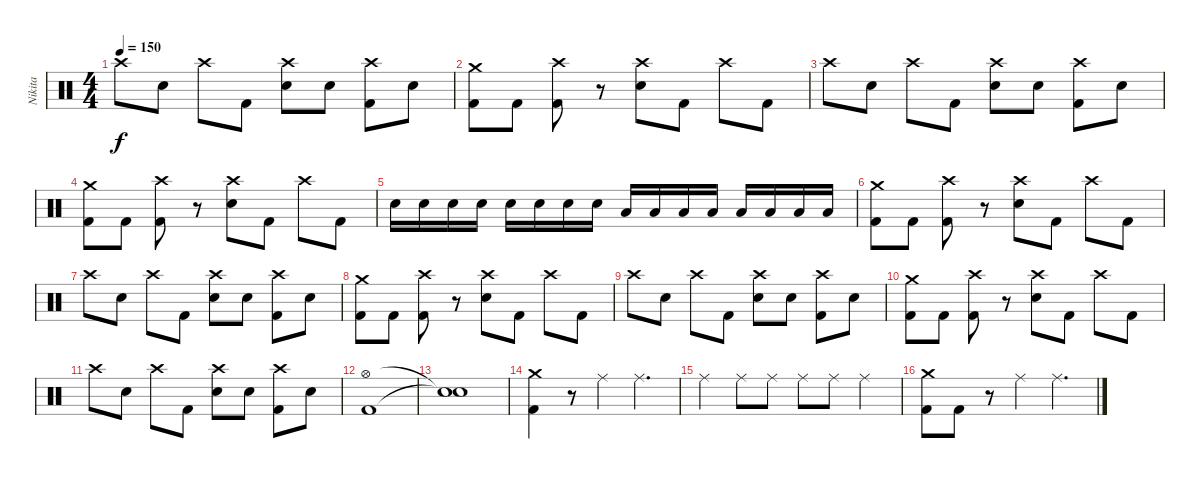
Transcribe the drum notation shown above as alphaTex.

\track ("Nikita" "Nikita") {instrument percussion}
\staff {score}
\articulation defaults
\ts (4 4)
\tempo 150
\clef neutral
\ks c "Crash high (hit)".8{dy f} "Electric Snare (hit)".8 "Crash high (hit)".8 "Kick (hit) 2".8
("Crash high (hit)" "Electric Snare (hit)").8 "Electric Snare (hit)".8 ("Crash high (hit)" "Kick (hit) 2").8 "Electric Snare (hit)".8 |
("Crash medium (hit)" "Kick (hit) 2").8 "Kick (hit) 2".8 ("Crash high (hit)" "Kick (hit) 2").8 r.8 ("Crash high (hit)" "Electric Snare (hit)").8 "Kick (hit) 2".8 "Crash high (hit)".8 "Kick (hit) 2".8 |
"Crash high (hit)".8 "Electric Snare (hit)".8 "Crash high (hit)".8 "Kick (hit) 2".8 ("Crash high (hit)" "Electric Snare (hit)").8 "Electric Snare (hit)".8 ("Crash high (hit)" "Kick (hit) 2").8 "Electric Snare (hit)".8 |
("Crash medium (hit)" "Kick (hit) 2").8 "Kick (hit) 2".8 ("Crash high (hit)" "Kick (hit) 2").8 r.8 ("Crash high (hit)" "Electric Snare (hit)").8 "Kick (hit) 2".8 "Crash high (hit)".8 "Kick (hit) 2".8 |
"Electric Snare (hit)".16 "Electric Snare (hit)".16 "Electric Snare (hit)".16 "Electric Snare (hit)".16 "Electric Snare (hit)".16 "Electric Snare (hit)".16 "Electric Snare (hit)".16 "Electric Snare (hit)".16 "Low Tom (hit)".16 "Low Tom (hit)".16 "Low Tom (hit)".16 "Low Tom (hit)".16 "Low Floor Tom (hit)".16 "Low Floor Tom (hit)".16 "Low Floor Tom (hit)".16 "Low Floor Tom (hit)".16 |
("Crash medium (hit)" "Kick (hit) 2").8 "Kick (hit) 2".8 ("Crash high (hit)" "Kick (hit) 2").8 r.8 ("Crash high (hit)" "Electric Snare (hit)").8 "Kick (hit) 2".8 "Crash high (hit)".8 "Kick (hit) 2".8 |
"Crash high (hit)".8 "Electric Snare (hit)".8 "Crash high (hit)".8 "Kick (hit) 2".8 ("Crash high (hit)" "Electric Snare (hit)").8 "Electric Snare (hit)".8 ("Crash high (hit)" "Kick (hit) 2").8 "Electric Snare (hit)".8 |
("Crash medium (hit)" "Kick (hit) 2").8 "Kick (hit) 2".8 ("Crash high (hit)" "Kick (hit) 2").8 r.8 ("Crash high (hit)" "Electric Snare (hit)").8 "Kick (hit) 2".8 "Crash high (hit)".8 "Kick (hit) 2".8 |
"Crash high (hit)".8 "Electric Snare (hit)".8 "Crash high (hit)".8 "Kick (hit) 2".8 ("Crash high (hit)" "Electric Snare (hit)").8 "Electric Snare (hit)".8 ("Crash high (hit)" "Kick (hit) 2").8 "Electric Snare (hit)".8 |
("Crash medium (hit)" "Kick (hit) 2").8 "Kick (hit) 2".8 ("Crash high (hit)" "Kick (hit) 2").8 r.8 ("Crash high (hit)" "Electric Snare (hit)").8 "Kick (hit) 2".8 "Crash high (hit)".8 "Kick (hit) 2".8 |
"Crash high (hit)".8 "Electric Snare (hit)".8 "Crash high (hit)".8 "Kick (hit) 2".8 ("Crash high (hit)" "Electric Snare (hit)").8 "Electric Snare (hit)".8 ("Crash high (hit)" "Kick (hit) 2").8 "Electric Snare (hit)".8 |
("Hi-Hat (open)" "Kick (hit) 2").1 |
("Snare (hit)"{t} "Snare (hit)"{t}).1 |
("Crash medium (hit)" "Kick (hit) 2").4 r.8 "Ride (middle)".4 "Ride (middle)".4{d} |
"Ride (middle)".4 "Ride (middle)".8 "Ride (middle)".8 "Ride (middle)".8 "Ride (middle)".8 "Ride (middle)".4 |
("Crash medium (hit)" "Kick (hit) 2").8 "Kick (hit) 2".8 r.8 "Ride (middle)".4 "Ride (middle)".4{d}
